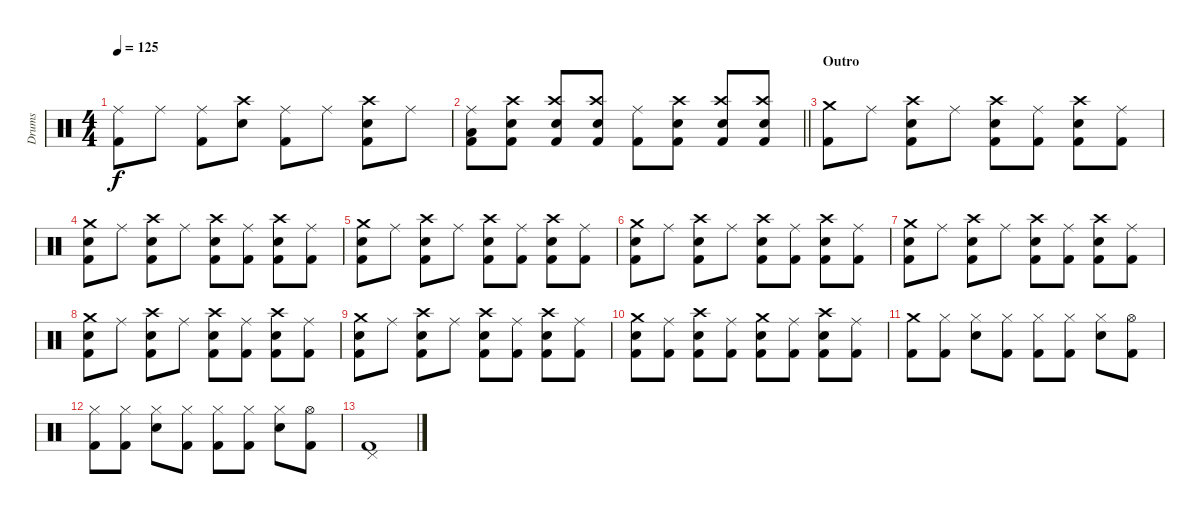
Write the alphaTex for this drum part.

\track ("Drums" "Drums") {instrument percussion}
\staff {score}
\articulation defaults
\ts (4 4)
\tempo 125
\clef neutral
\ks c
("Ride (middle)" "Kick (hit) 2").8{dy f} "Ride (middle)".8 ("Ride (middle)" "Kick (hit) 2").8 ("Crash high (hit)" "Electric Snare (hit)").8 ("Ride (middle)" "Kick (hit) 2").8 "Ride (middle)".8 ("Crash high (hit)" "Electric Snare (hit)" "Kick (hit) 2").8 "Ride (middle)".8 |
\barLineRight lightlight
("Ride (middle)" "Low Tom (hit)" "Kick (hit) 2").8 ("Crash high (hit)" "Electric Snare (hit)" "Kick (hit) 2").8 ("Crash high (hit)" "Electric Snare (hit)" "Kick (hit) 2").8 ("Crash high (hit)" "Electric Snare (hit)" "Kick (hit) 2").8 ("Ride (middle)" "Kick (hit) 2").8 ("Crash high (hit)" "Electric Snare (hit)" "Kick (hit) 2").8 ("Crash high (hit)" "Electric Snare (hit)" "Kick (hit) 2").8 ("Crash high (hit)" "Electric Snare (hit)" "Kick (hit) 2").8 |
\section ("" "Outro")
("Crash medium (hit)" "Kick (hit) 2").8 "Ride (middle)".8 ("Crash high (hit)" "Electric Snare (hit)" "Kick (hit) 2").8 "Ride (middle)".8 ("Crash high (hit)" "Electric Snare (hit)" "Kick (hit) 2").8 ("Ride (middle)" "Kick (hit) 2").8 ("Crash high (hit)" "Electric Snare (hit)" "Kick (hit) 2").8 ("Ride (middle)" "Kick (hit) 2").8 |
("Crash medium (hit)" "Electric Snare (hit)" "Kick (hit) 2").8 "Ride (middle)".8 ("Crash high (hit)" "Electric Snare (hit)" "Kick (hit) 2").8 "Ride (middle)".8 ("Crash high (hit)" "Electric Snare (hit)" "Kick (hit) 2").8 ("Ride (middle)" "Kick (hit) 2").8 ("Crash high (hit)" "Electric Snare (hit)" "Kick (hit) 2").8 ("Ride (middle)" "Kick (hit) 2").8 |
("Crash medium (hit)" "Electric Snare (hit)" "Kick (hit) 2").8 "Ride (middle)".8 ("Crash high (hit)" "Electric Snare (hit)" "Kick (hit) 2").8 "Ride (middle)".8 ("Crash high (hit)" "Electric Snare (hit)" "Kick (hit) 2").8 ("Ride (middle)" "Kick (hit) 2").8 ("Crash high (hit)" "Electric Snare (hit)" "Kick (hit) 2").8 ("Ride (middle)" "Kick (hit) 2").8 |
("Crash medium (hit)" "Electric Snare (hit)" "Kick (hit) 2").8 "Ride (middle)".8 ("Crash high (hit)" "Electric Snare (hit)" "Kick (hit) 2").8 "Ride (middle)".8 ("Crash high (hit)" "Electric Snare (hit)" "Kick (hit) 2").8 ("Ride (middle)" "Kick (hit) 2").8 ("Crash high (hit)" "Electric Snare (hit)" "Kick (hit) 2").8 ("Ride (middle)" "Kick (hit) 2").8 |
("Crash medium (hit)" "Electric Snare (hit)" "Kick (hit) 2").8 "Ride (middle)".8 ("Crash high (hit)" "Electric Snare (hit)" "Kick (hit) 2").8 "Ride (middle)".8 ("Crash high (hit)" "Electric Snare (hit)" "Kick (hit) 2").8 ("Ride (middle)" "Kick (hit) 2").8 ("Crash high (hit)" "Electric Snare (hit)" "Kick (hit) 2").8 ("Ride (middle)" "Kick (hit) 2").8 |
("Crash medium (hit)" "Electric Snare (hit)" "Kick (hit) 2").8 "Ride (middle)".8 ("Crash high (hit)" "Electric Snare (hit)" "Kick (hit) 2").8 "Ride (middle)".8 ("Crash high (hit)" "Electric Snare (hit)" "Kick (hit) 2").8 ("Ride (middle)" "Kick (hit) 2").8 ("Crash high (hit)" "Electric Snare (hit)" "Kick (hit) 2").8 ("Ride (middle)" "Kick (hit) 2").8 |
("Crash medium (hit)" "Electric Snare (hit)" "Kick (hit) 2").8 "Ride (middle)".8 ("Crash high (hit)" "Electric Snare (hit)" "Kick (hit) 2").8 "Ride (middle)".8 ("Crash high (hit)" "Electric Snare (hit)" "Kick (hit) 2").8 ("Ride (middle)" "Kick (hit) 2").8 ("Crash high (hit)" "Electric Snare (hit)" "Kick (hit) 2").8 ("Ride (middle)" "Kick (hit) 2").8 |
("Crash medium (hit)" "Electric Snare (hit)" "Kick (hit) 2").8 ("Ride (middle)" "Kick (hit) 2").8 ("Crash high (hit)" "Electric Snare (hit)" "Kick (hit) 2").8 ("Ride (middle)" "Kick (hit) 2").8 ("Crash medium (hit)" "Electric Snare (hit)" "Kick (hit) 2").8 ("Ride (middle)" "Kick (hit) 2").8 ("Crash high (hit)" "Electric Snare (hit)" "Kick (hit) 2").8 ("Ride (middle)" "Kick (hit) 2").8 |
("Crash medium (hit)" "Kick (hit) 2").8 ("Hi-Hat (closed)" "Kick (hit) 2").8 ("Hi-Hat (closed)" "Electric Snare (hit)").8 ("Hi-Hat (closed)" "Kick (hit) 2").8 ("Hi-Hat (closed)" "Kick (hit) 2").8 ("Hi-Hat (closed)" "Kick (hit) 2").8 ("Hi-Hat (closed)" "Electric Snare (hit)").8 ("Hi-Hat (open)" "Kick (hit) 2").8 |
("Hi-Hat (closed)" "Kick (hit) 2").8 ("Hi-Hat (closed)" "Kick (hit) 2").8 ("Hi-Hat (closed)" "Electric Snare (hit)").8 ("Hi-Hat (closed)" "Kick (hit) 2").8 ("Hi-Hat (closed)" "Kick (hit) 2").8 ("Hi-Hat (closed)" "Kick (hit) 2").8 ("Hi-Hat (closed)" "Electric Snare (hit)").8 ("Hi-Hat (open)" "Kick (hit) 2").8 |
("Pedal Hi-Hat (hit)" "Kick (hit) 2").1
